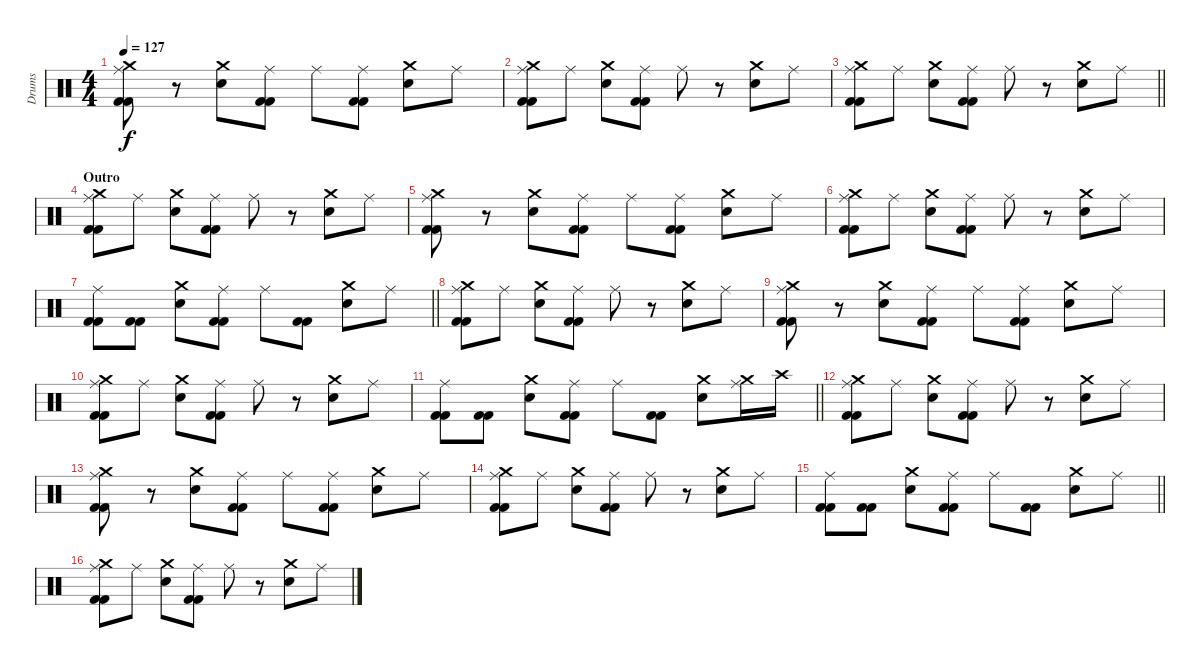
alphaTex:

\track ("Drums" "Drums") {instrument percussion}
\staff {score}
\articulation defaults
\ts (4 4)
\tempo 127
\clef neutral
\ks c
("Ride (middle)" "Crash medium (hit)" "Kick (hit) 2" "Kick (hit) 2").8{dy f} r.8 ("Crash medium (hit)" "Electric Snare (hit)").8 ("Ride (middle)" "Kick (hit) 2" "Kick (hit) 2").8 "Ride (middle)".8 ("Ride (middle)" "Kick (hit) 2" "Kick (hit) 2").8 ("Crash medium (hit)" "Electric Snare (hit)").8 "Ride (middle)".8 |
("Ride (middle)" "Crash medium (hit)" "Kick (hit) 2" "Kick (hit) 2").8 "Ride (middle)".8 ("Crash medium (hit)" "Electric Snare (hit)").8 ("Ride (middle)" "Kick (hit) 2" "Kick (hit) 2").8 "Ride (middle)".8 r.8 ("Crash medium (hit)" "Electric Snare (hit)").8 "Ride (middle)".8 |
\barLineRight lightlight
("Ride (middle)" "Crash medium (hit)" "Kick (hit) 2" "Kick (hit) 2").8 "Ride (middle)".8 ("Crash medium (hit)" "Electric Snare (hit)").8 ("Ride (middle)" "Kick (hit) 2" "Kick (hit) 2").8 "Ride (middle)".8 r.8 ("Crash medium (hit)" "Electric Snare (hit)").8 "Ride (middle)".8 |
\section ("" "Outro")
("Ride (middle)" "Crash medium (hit)" "Kick (hit) 2" "Kick (hit) 2").8 "Ride (middle)".8 ("Crash medium (hit)" "Electric Snare (hit)").8 ("Ride (middle)" "Kick (hit) 2" "Kick (hit) 2").8 "Ride (middle)".8 r.8 ("Crash medium (hit)" "Electric Snare (hit)").8 "Ride (middle)".8 |
("Ride (middle)" "Crash medium (hit)" "Kick (hit) 2" "Kick (hit) 2").8 r.8 ("Crash medium (hit)" "Electric Snare (hit)").8 ("Ride (middle)" "Kick (hit) 2" "Kick (hit) 2").8 "Ride (middle)".8 ("Ride (middle)" "Kick (hit) 2" "Kick (hit) 2").8 ("Crash medium (hit)" "Electric Snare (hit)").8 "Ride (middle)".8 |
("Ride (middle)" "Crash medium (hit)" "Kick (hit) 2" "Kick (hit) 2").8 "Ride (middle)".8 ("Crash medium (hit)" "Electric Snare (hit)").8 ("Ride (middle)" "Kick (hit) 2" "Kick (hit) 2").8 "Ride (middle)".8 r.8 ("Crash medium (hit)" "Electric Snare (hit)").8 "Ride (middle)".8 |
\barLineRight lightlight
("Ride (middle)" "Kick (hit) 2" "Kick (hit) 2").8 ("Kick (hit) 2" "Kick (hit) 2").8 ("Crash medium (hit)" "Electric Snare (hit)").8 ("Ride (middle)" "Kick (hit) 2" "Kick (hit) 2").8 "Ride (middle)".8 ("Kick (hit) 2" "Kick (hit) 2").8 ("Crash medium (hit)" "Electric Snare (hit)").8 "Ride (middle)".8 |
("Ride (middle)" "Crash medium (hit)" "Kick (hit) 2" "Kick (hit) 2").8 "Ride (middle)".8 ("Crash medium (hit)" "Electric Snare (hit)").8 ("Ride (middle)" "Kick (hit) 2" "Kick (hit) 2").8 "Ride (middle)".8 r.8 ("Crash medium (hit)" "Electric Snare (hit)").8 "Ride (middle)".8 |
("Ride (middle)" "Crash medium (hit)" "Kick (hit) 2" "Kick (hit) 2").8 r.8 ("Crash medium (hit)" "Electric Snare (hit)").8 ("Ride (middle)" "Kick (hit) 2" "Kick (hit) 2").8 "Ride (middle)".8 ("Ride (middle)" "Kick (hit) 2" "Kick (hit) 2").8 ("Crash medium (hit)" "Electric Snare (hit)").8 "Ride (middle)".8 |
("Ride (middle)" "Crash medium (hit)" "Kick (hit) 2" "Kick (hit) 2").8 "Ride (middle)".8 ("Crash medium (hit)" "Electric Snare (hit)").8 ("Ride (middle)" "Kick (hit) 2" "Kick (hit) 2").8 "Ride (middle)".8 r.8 ("Crash medium (hit)" "Electric Snare (hit)").8 "Ride (middle)".8 |
\barLineRight lightlight
("Ride (middle)" "Kick (hit) 2" "Kick (hit) 2").8 ("Kick (hit) 2" "Kick (hit) 2").8 ("Crash medium (hit)" "Electric Snare (hit)").8 ("Ride (middle)" "Kick (hit) 2" "Kick (hit) 2").8 "Ride (middle)".8 ("Kick (hit) 2" "Kick (hit) 2").8 ("Crash medium (hit)" "Electric Snare (hit)").8 ("Ride (middle)" "Crash medium (hit)").16 "Crash high (hit)".16 |
("Ride (middle)" "Crash medium (hit)" "Kick (hit) 2" "Kick (hit) 2").8 "Ride (middle)".8 ("Crash medium (hit)" "Electric Snare (hit)").8 ("Ride (middle)" "Kick (hit) 2" "Kick (hit) 2").8 "Ride (middle)".8 r.8 ("Crash medium (hit)" "Electric Snare (hit)").8 "Ride (middle)".8 |
("Ride (middle)" "Crash medium (hit)" "Kick (hit) 2" "Kick (hit) 2").8 r.8 ("Crash medium (hit)" "Electric Snare (hit)").8 ("Ride (middle)" "Kick (hit) 2" "Kick (hit) 2").8 "Ride (middle)".8 ("Ride (middle)" "Kick (hit) 2" "Kick (hit) 2").8 ("Crash medium (hit)" "Electric Snare (hit)").8 "Ride (middle)".8 |
("Ride (middle)" "Crash medium (hit)" "Kick (hit) 2" "Kick (hit) 2").8 "Ride (middle)".8 ("Crash medium (hit)" "Electric Snare (hit)").8 ("Ride (middle)" "Kick (hit) 2" "Kick (hit) 2").8 "Ride (middle)".8 r.8 ("Crash medium (hit)" "Electric Snare (hit)").8 "Ride (middle)".8 |
\barLineRight lightlight
("Ride (middle)" "Kick (hit) 2" "Kick (hit) 2").8 ("Kick (hit) 2" "Kick (hit) 2").8 ("Crash medium (hit)" "Electric Snare (hit)").8 ("Ride (middle)" "Kick (hit) 2" "Kick (hit) 2").8 "Ride (middle)".8 ("Kick (hit) 2" "Kick (hit) 2").8 ("Crash medium (hit)" "Electric Snare (hit)").8 "Ride (middle)".8 |
("Ride (middle)" "Crash medium (hit)" "Kick (hit) 2" "Kick (hit) 2").8 "Ride (middle)".8 ("Crash medium (hit)" "Electric Snare (hit)").8 ("Ride (middle)" "Kick (hit) 2" "Kick (hit) 2").8 "Ride (middle)".8 r.8 ("Crash medium (hit)" "Electric Snare (hit)").8 "Ride (middle)".8
